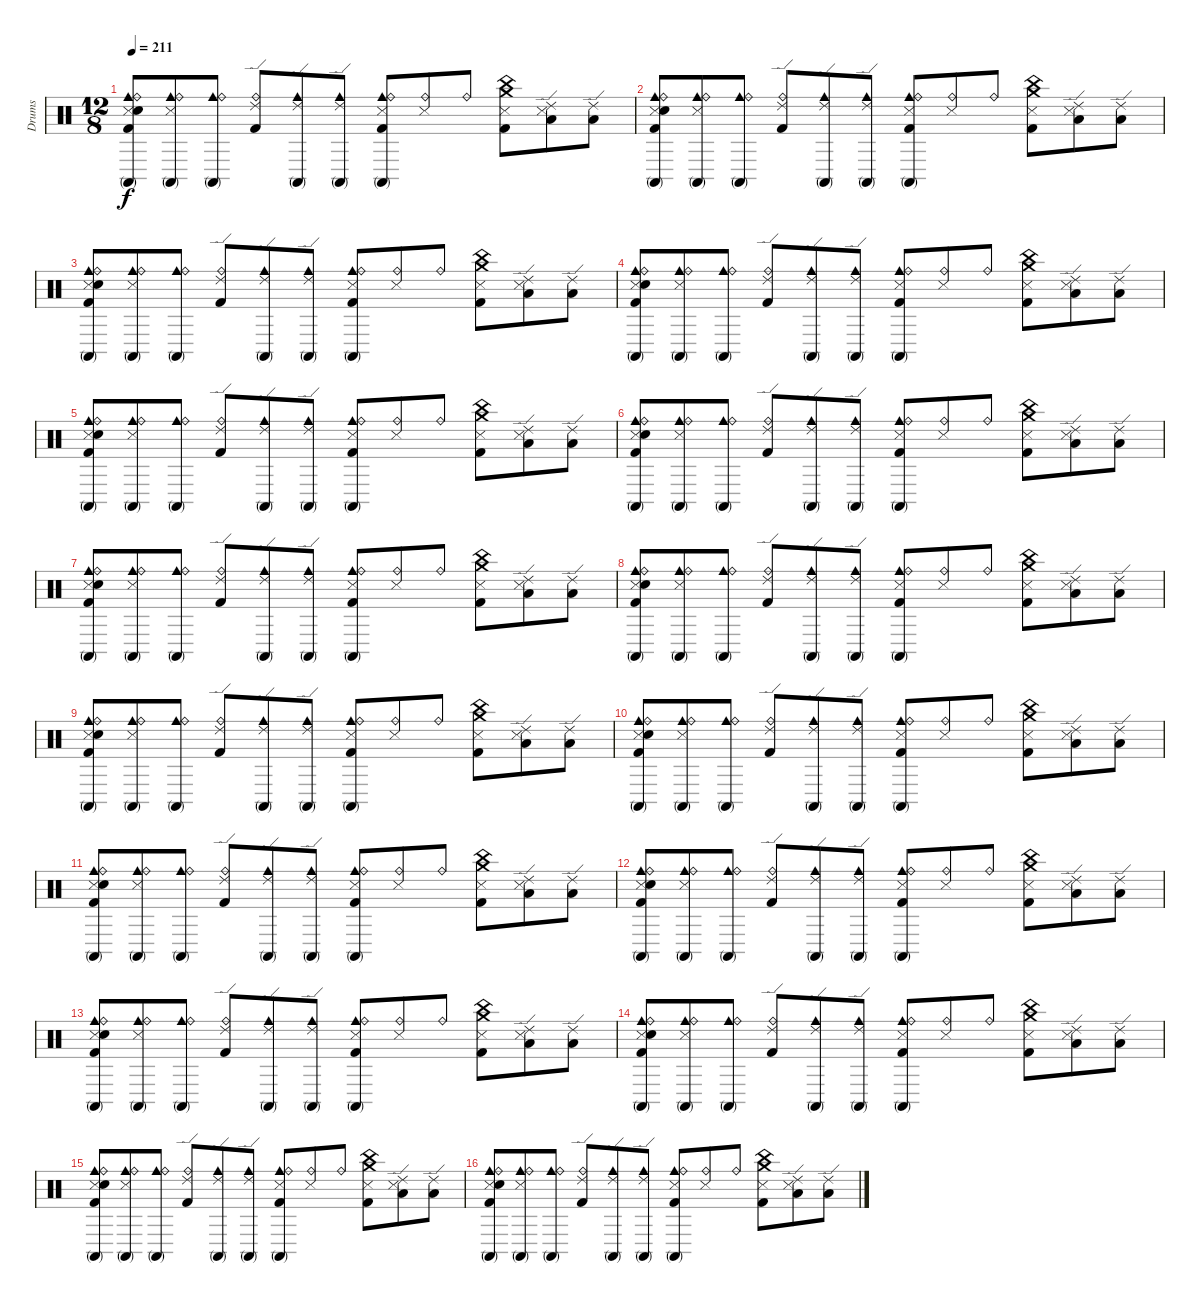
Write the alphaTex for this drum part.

\track ("Drums" "Drums") {instrument percussion}
\staff {score}
\articulation defaults
\ts (12 8)
\tempo 211
\clef neutral
\ks c
("Conga high (mute)" "Kick (hit) 2" "Snare (side stick) 3" "Snare (hit) 2" "Cowbell medium (hit)" "Ride (bell)").8{dy f} ("Snare (side stick) 3" "Cowbell medium (hit)" "Conga high (mute)" "Ride (bell)").8 ("Cowbell medium (hit)" "Conga high (mute)" "Ride (bell)").8 ("Ride (edge) 2" "Kick (hit) 2" "Ride (bell)").8 ("Conga high (mute)" "Ride (edge) 2" "Cowbell medium (hit)").8 ("Cowbell medium (hit)" "Conga high (mute)" "Ride (edge) 2").8 ("Cowbell medium (hit)" "Conga high (mute)" "Kick (hit) 2" "Snare (side stick) 3" "Ride (bell)").8 ("Snare (side stick) 3" "Ride (bell)").8 "Ride (bell)".8 ("China (hit)" "Crash medium (hit)" "Kick (hit) 2" "Snare (side stick) 3").8 ("Ride (edge) 2" "Low Tom (hit)" "Snare (side stick) 3").8 ("Ride (edge) 2" "Low Tom (hit)").8 |
("Conga high (mute)" "Kick (hit) 2" "Snare (side stick) 3" "Snare (hit) 2" "Cowbell medium (hit)" "Ride (bell)").8 ("Snare (side stick) 3" "Cowbell medium (hit)" "Conga high (mute)" "Ride (bell)").8 ("Cowbell medium (hit)" "Conga high (mute)" "Ride (bell)").8 ("Ride (edge) 2" "Kick (hit) 2" "Ride (bell)").8 ("Conga high (mute)" "Ride (edge) 2" "Cowbell medium (hit)").8 ("Cowbell medium (hit)" "Conga high (mute)" "Ride (edge) 2").8 ("Cowbell medium (hit)" "Conga high (mute)" "Kick (hit) 2" "Snare (side stick) 3" "Ride (bell)").8 ("Snare (side stick) 3" "Ride (bell)").8 "Ride (bell)".8 ("China (hit)" "Crash medium (hit)" "Kick (hit) 2" "Snare (side stick) 3").8 ("Ride (edge) 2" "Low Tom (hit)" "Snare (side stick) 3").8 ("Ride (edge) 2" "Low Tom (hit)").8 |
("Conga high (mute)" "Kick (hit) 2" "Snare (side stick) 3" "Snare (hit) 2" "Cowbell medium (hit)" "Ride (bell)").8 ("Snare (side stick) 3" "Cowbell medium (hit)" "Conga high (mute)" "Ride (bell)").8 ("Cowbell medium (hit)" "Conga high (mute)" "Ride (bell)").8 ("Ride (edge) 2" "Kick (hit) 2" "Ride (bell)").8 ("Conga high (mute)" "Ride (edge) 2" "Cowbell medium (hit)").8 ("Cowbell medium (hit)" "Conga high (mute)" "Ride (edge) 2").8 ("Cowbell medium (hit)" "Conga high (mute)" "Kick (hit) 2" "Snare (side stick) 3" "Ride (bell)").8 ("Snare (side stick) 3" "Ride (bell)").8 "Ride (bell)".8 ("China (hit)" "Crash medium (hit)" "Kick (hit) 2" "Snare (side stick) 3").8 ("Ride (edge) 2" "Low Tom (hit)" "Snare (side stick) 3").8 ("Ride (edge) 2" "Low Tom (hit)").8 |
("Conga high (mute)" "Kick (hit) 2" "Snare (side stick) 3" "Snare (hit) 2" "Cowbell medium (hit)" "Ride (bell)").8 ("Snare (side stick) 3" "Cowbell medium (hit)" "Conga high (mute)" "Ride (bell)").8 ("Cowbell medium (hit)" "Conga high (mute)" "Ride (bell)").8 ("Ride (edge) 2" "Kick (hit) 2" "Ride (bell)").8 ("Conga high (mute)" "Ride (edge) 2" "Cowbell medium (hit)").8 ("Cowbell medium (hit)" "Conga high (mute)" "Ride (edge) 2").8 ("Cowbell medium (hit)" "Conga high (mute)" "Kick (hit) 2" "Snare (side stick) 3" "Ride (bell)").8 ("Snare (side stick) 3" "Ride (bell)").8 "Ride (bell)".8 ("China (hit)" "Crash medium (hit)" "Kick (hit) 2" "Snare (side stick) 3").8 ("Ride (edge) 2" "Low Tom (hit)" "Snare (side stick) 3").8 ("Ride (edge) 2" "Low Tom (hit)").8 |
("Conga high (mute)" "Kick (hit) 2" "Snare (side stick) 3" "Snare (hit) 2" "Cowbell medium (hit)" "Ride (bell)").8 ("Snare (side stick) 3" "Cowbell medium (hit)" "Conga high (mute)" "Ride (bell)").8 ("Cowbell medium (hit)" "Conga high (mute)" "Ride (bell)").8 ("Ride (edge) 2" "Kick (hit) 2" "Ride (bell)").8 ("Conga high (mute)" "Ride (edge) 2" "Cowbell medium (hit)").8 ("Cowbell medium (hit)" "Conga high (mute)" "Ride (edge) 2").8 ("Cowbell medium (hit)" "Conga high (mute)" "Kick (hit) 2" "Snare (side stick) 3" "Ride (bell)").8 ("Snare (side stick) 3" "Ride (bell)").8 "Ride (bell)".8 ("China (hit)" "Crash medium (hit)" "Kick (hit) 2" "Snare (side stick) 3").8 ("Ride (edge) 2" "Low Tom (hit)" "Snare (side stick) 3").8 ("Ride (edge) 2" "Low Tom (hit)").8 |
("Conga high (mute)" "Kick (hit) 2" "Snare (side stick) 3" "Snare (hit) 2" "Cowbell medium (hit)" "Ride (bell)").8 ("Snare (side stick) 3" "Cowbell medium (hit)" "Conga high (mute)" "Ride (bell)").8 ("Cowbell medium (hit)" "Conga high (mute)" "Ride (bell)").8 ("Ride (edge) 2" "Kick (hit) 2" "Ride (bell)").8 ("Conga high (mute)" "Ride (edge) 2" "Cowbell medium (hit)").8 ("Cowbell medium (hit)" "Conga high (mute)" "Ride (edge) 2").8 ("Cowbell medium (hit)" "Conga high (mute)" "Kick (hit) 2" "Snare (side stick) 3" "Ride (bell)").8 ("Snare (side stick) 3" "Ride (bell)").8 "Ride (bell)".8 ("China (hit)" "Crash medium (hit)" "Kick (hit) 2" "Snare (side stick) 3").8 ("Ride (edge) 2" "Low Tom (hit)" "Snare (side stick) 3").8 ("Ride (edge) 2" "Low Tom (hit)").8 |
("Conga high (mute)" "Kick (hit) 2" "Snare (side stick) 3" "Snare (hit) 2" "Cowbell medium (hit)" "Ride (bell)").8 ("Snare (side stick) 3" "Cowbell medium (hit)" "Conga high (mute)" "Ride (bell)").8 ("Cowbell medium (hit)" "Conga high (mute)" "Ride (bell)").8 ("Ride (edge) 2" "Kick (hit) 2" "Ride (bell)").8 ("Conga high (mute)" "Ride (edge) 2" "Cowbell medium (hit)").8 ("Cowbell medium (hit)" "Conga high (mute)" "Ride (edge) 2").8 ("Cowbell medium (hit)" "Conga high (mute)" "Kick (hit) 2" "Snare (side stick) 3" "Ride (bell)").8 ("Snare (side stick) 3" "Ride (bell)").8 "Ride (bell)".8 ("China (hit)" "Crash medium (hit)" "Kick (hit) 2" "Snare (side stick) 3").8 ("Ride (edge) 2" "Low Tom (hit)" "Snare (side stick) 3").8 ("Ride (edge) 2" "Low Tom (hit)").8 |
("Conga high (mute)" "Kick (hit) 2" "Snare (side stick) 3" "Snare (hit) 2" "Cowbell medium (hit)" "Ride (bell)").8 ("Snare (side stick) 3" "Cowbell medium (hit)" "Conga high (mute)" "Ride (bell)").8 ("Cowbell medium (hit)" "Conga high (mute)" "Ride (bell)").8 ("Ride (edge) 2" "Kick (hit) 2" "Ride (bell)").8 ("Conga high (mute)" "Ride (edge) 2" "Cowbell medium (hit)").8 ("Cowbell medium (hit)" "Conga high (mute)" "Ride (edge) 2").8 ("Cowbell medium (hit)" "Conga high (mute)" "Kick (hit) 2" "Snare (side stick) 3" "Ride (bell)").8 ("Snare (side stick) 3" "Ride (bell)").8 "Ride (bell)".8 ("China (hit)" "Crash medium (hit)" "Kick (hit) 2" "Snare (side stick) 3").8 ("Ride (edge) 2" "Low Tom (hit)" "Snare (side stick) 3").8 ("Ride (edge) 2" "Low Tom (hit)").8 |
("Conga high (mute)" "Kick (hit) 2" "Snare (side stick) 3" "Snare (hit) 2" "Cowbell medium (hit)" "Ride (bell)").8 ("Snare (side stick) 3" "Cowbell medium (hit)" "Conga high (mute)" "Ride (bell)").8 ("Cowbell medium (hit)" "Conga high (mute)" "Ride (bell)").8 ("Ride (edge) 2" "Kick (hit) 2" "Ride (bell)").8 ("Conga high (mute)" "Ride (edge) 2" "Cowbell medium (hit)").8 ("Cowbell medium (hit)" "Conga high (mute)" "Ride (edge) 2").8 ("Cowbell medium (hit)" "Conga high (mute)" "Kick (hit) 2" "Snare (side stick) 3" "Ride (bell)").8 ("Snare (side stick) 3" "Ride (bell)").8 "Ride (bell)".8 ("China (hit)" "Crash medium (hit)" "Kick (hit) 2" "Snare (side stick) 3").8 ("Ride (edge) 2" "Low Tom (hit)" "Snare (side stick) 3").8 ("Ride (edge) 2" "Low Tom (hit)").8 |
("Conga high (mute)" "Kick (hit) 2" "Snare (side stick) 3" "Snare (hit) 2" "Cowbell medium (hit)" "Ride (bell)").8 ("Snare (side stick) 3" "Cowbell medium (hit)" "Conga high (mute)" "Ride (bell)").8 ("Cowbell medium (hit)" "Conga high (mute)" "Ride (bell)").8 ("Ride (edge) 2" "Kick (hit) 2" "Ride (bell)").8 ("Conga high (mute)" "Ride (edge) 2" "Cowbell medium (hit)").8 ("Cowbell medium (hit)" "Conga high (mute)" "Ride (edge) 2").8 ("Cowbell medium (hit)" "Conga high (mute)" "Kick (hit) 2" "Snare (side stick) 3" "Ride (bell)").8 ("Snare (side stick) 3" "Ride (bell)").8 "Ride (bell)".8 ("China (hit)" "Crash medium (hit)" "Kick (hit) 2" "Snare (side stick) 3").8 ("Ride (edge) 2" "Low Tom (hit)" "Snare (side stick) 3").8 ("Ride (edge) 2" "Low Tom (hit)").8 |
("Conga high (mute)" "Kick (hit) 2" "Snare (side stick) 3" "Snare (hit) 2" "Cowbell medium (hit)" "Ride (bell)").8 ("Snare (side stick) 3" "Cowbell medium (hit)" "Conga high (mute)" "Ride (bell)").8 ("Cowbell medium (hit)" "Conga high (mute)" "Ride (bell)").8 ("Ride (edge) 2" "Kick (hit) 2" "Ride (bell)").8 ("Conga high (mute)" "Ride (edge) 2" "Cowbell medium (hit)").8 ("Cowbell medium (hit)" "Conga high (mute)" "Ride (edge) 2").8 ("Cowbell medium (hit)" "Conga high (mute)" "Kick (hit) 2" "Snare (side stick) 3" "Ride (bell)").8 ("Snare (side stick) 3" "Ride (bell)").8 "Ride (bell)".8 ("China (hit)" "Crash medium (hit)" "Kick (hit) 2" "Snare (side stick) 3").8 ("Ride (edge) 2" "Low Tom (hit)" "Snare (side stick) 3").8 ("Ride (edge) 2" "Low Tom (hit)").8 |
("Conga high (mute)" "Kick (hit) 2" "Snare (side stick) 3" "Snare (hit) 2" "Cowbell medium (hit)" "Ride (bell)").8 ("Snare (side stick) 3" "Cowbell medium (hit)" "Conga high (mute)" "Ride (bell)").8 ("Cowbell medium (hit)" "Conga high (mute)" "Ride (bell)").8 ("Ride (edge) 2" "Kick (hit) 2" "Ride (bell)").8 ("Conga high (mute)" "Ride (edge) 2" "Cowbell medium (hit)").8 ("Cowbell medium (hit)" "Conga high (mute)" "Ride (edge) 2").8 ("Cowbell medium (hit)" "Conga high (mute)" "Kick (hit) 2" "Snare (side stick) 3" "Ride (bell)").8 ("Snare (side stick) 3" "Ride (bell)").8 "Ride (bell)".8 ("China (hit)" "Crash medium (hit)" "Kick (hit) 2" "Snare (side stick) 3").8 ("Ride (edge) 2" "Low Tom (hit)" "Snare (side stick) 3").8 ("Ride (edge) 2" "Low Tom (hit)").8 |
("Conga high (mute)" "Kick (hit) 2" "Snare (side stick) 3" "Snare (hit) 2" "Cowbell medium (hit)" "Ride (bell)").8 ("Snare (side stick) 3" "Cowbell medium (hit)" "Conga high (mute)" "Ride (bell)").8 ("Cowbell medium (hit)" "Conga high (mute)" "Ride (bell)").8 ("Ride (edge) 2" "Kick (hit) 2" "Ride (bell)").8 ("Conga high (mute)" "Ride (edge) 2" "Cowbell medium (hit)").8 ("Cowbell medium (hit)" "Conga high (mute)" "Ride (edge) 2").8 ("Cowbell medium (hit)" "Conga high (mute)" "Kick (hit) 2" "Snare (side stick) 3" "Ride (bell)").8 ("Snare (side stick) 3" "Ride (bell)").8 "Ride (bell)".8 ("China (hit)" "Crash medium (hit)" "Kick (hit) 2" "Snare (side stick) 3").8 ("Ride (edge) 2" "Low Tom (hit)" "Snare (side stick) 3").8 ("Ride (edge) 2" "Low Tom (hit)").8 |
("Conga high (mute)" "Kick (hit) 2" "Snare (side stick) 3" "Snare (hit) 2" "Cowbell medium (hit)" "Ride (bell)").8 ("Snare (side stick) 3" "Cowbell medium (hit)" "Conga high (mute)" "Ride (bell)").8 ("Cowbell medium (hit)" "Conga high (mute)" "Ride (bell)").8 ("Ride (edge) 2" "Kick (hit) 2" "Ride (bell)").8 ("Conga high (mute)" "Ride (edge) 2" "Cowbell medium (hit)").8 ("Cowbell medium (hit)" "Conga high (mute)" "Ride (edge) 2").8 ("Cowbell medium (hit)" "Conga high (mute)" "Kick (hit) 2" "Snare (side stick) 3" "Ride (bell)").8 ("Snare (side stick) 3" "Ride (bell)").8 "Ride (bell)".8 ("China (hit)" "Crash medium (hit)" "Kick (hit) 2" "Snare (side stick) 3").8 ("Ride (edge) 2" "Low Tom (hit)" "Snare (side stick) 3").8 ("Ride (edge) 2" "Low Tom (hit)").8 |
("Conga high (mute)" "Kick (hit) 2" "Snare (side stick) 3" "Snare (hit) 2" "Cowbell medium (hit)" "Ride (bell)").8 ("Snare (side stick) 3" "Cowbell medium (hit)" "Conga high (mute)" "Ride (bell)").8 ("Cowbell medium (hit)" "Conga high (mute)" "Ride (bell)").8 ("Ride (edge) 2" "Kick (hit) 2" "Ride (bell)").8 ("Conga high (mute)" "Ride (edge) 2" "Cowbell medium (hit)").8 ("Cowbell medium (hit)" "Conga high (mute)" "Ride (edge) 2").8 ("Cowbell medium (hit)" "Conga high (mute)" "Kick (hit) 2" "Snare (side stick) 3" "Ride (bell)").8 ("Snare (side stick) 3" "Ride (bell)").8 "Ride (bell)".8 ("China (hit)" "Crash medium (hit)" "Kick (hit) 2" "Snare (side stick) 3").8 ("Ride (edge) 2" "Low Tom (hit)" "Snare (side stick) 3").8 ("Ride (edge) 2" "Low Tom (hit)").8 |
("Conga high (mute)" "Kick (hit) 2" "Snare (side stick) 3" "Snare (hit) 2" "Cowbell medium (hit)" "Ride (bell)").8 ("Snare (side stick) 3" "Cowbell medium (hit)" "Conga high (mute)" "Ride (bell)").8 ("Cowbell medium (hit)" "Conga high (mute)" "Ride (bell)").8 ("Ride (edge) 2" "Kick (hit) 2" "Ride (bell)").8 ("Conga high (mute)" "Ride (edge) 2" "Cowbell medium (hit)").8 ("Cowbell medium (hit)" "Conga high (mute)" "Ride (edge) 2").8 ("Cowbell medium (hit)" "Conga high (mute)" "Kick (hit) 2" "Snare (side stick) 3" "Ride (bell)").8 ("Snare (side stick) 3" "Ride (bell)").8 "Ride (bell)".8 ("China (hit)" "Crash medium (hit)" "Kick (hit) 2" "Snare (side stick) 3").8 ("Ride (edge) 2" "Low Tom (hit)" "Snare (side stick) 3").8 ("Ride (edge) 2" "Low Tom (hit)").8
